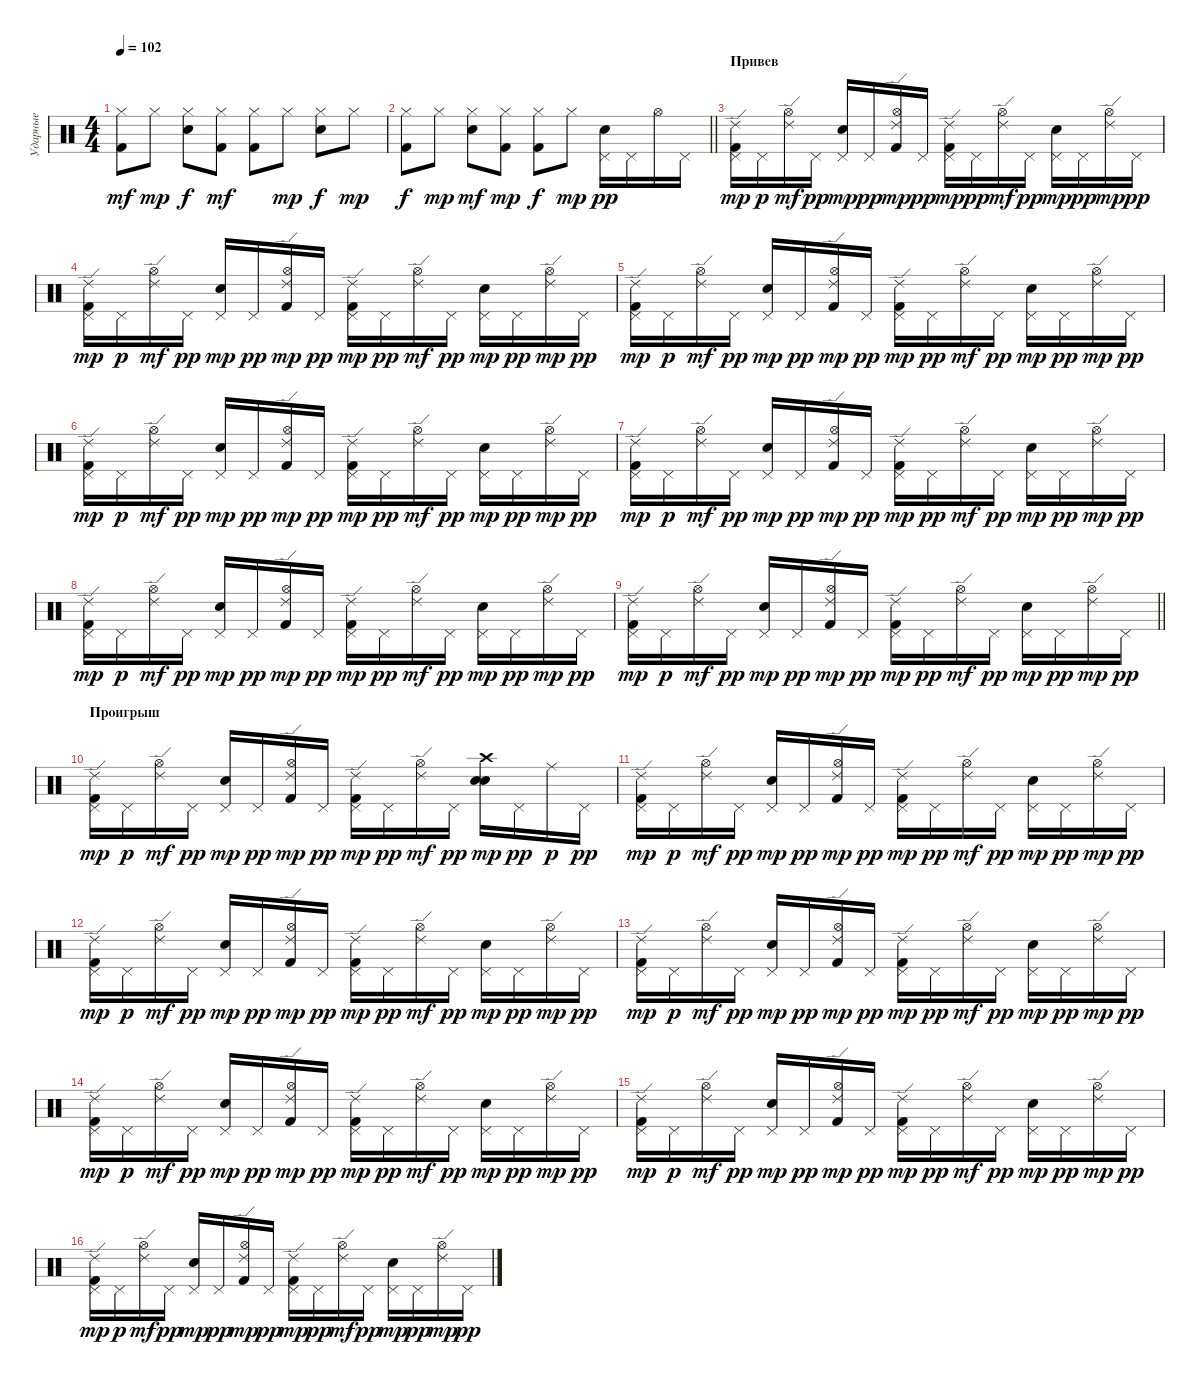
\track ("Ударные" "Ударные") {instrument percussion}
\staff {score}
\articulation defaults
\ts (4 4)
\tempo 102
\clef neutral
\ks c
("Hi-Hat (closed)" "Kick (hit) 2").8{dy mf} "Hi-Hat (closed)".8{dy mp} ("Hi-Hat (closed)" "Snare (hit) 2").8{dy f} ("Hi-Hat (closed)" "Kick (hit) 2").8{dy mf} ("Hi-Hat (closed)" "Kick (hit) 2").8 "Hi-Hat (closed)".8{dy mp} ("Hi-Hat (closed)" "Snare (hit) 2").8{dy f} "Hi-Hat (closed)".8{dy mp} |
\barLineRight lightlight
("Hi-Hat (closed)" "Kick (hit) 2").8{dy f} "Hi-Hat (closed)".8{dy mp} ("Hi-Hat (closed)" "Snare (hit) 2").8{dy mf} ("Hi-Hat (closed)" "Kick (hit) 2").8{dy mp} ("Hi-Hat (closed)" "Kick (hit) 2").8{dy f} "Hi-Hat (closed)".8{dy mp} ("Pedal Hi-Hat (hit)" "Snare (hit) 2").16{dy pp} "Pedal Hi-Hat (hit)".16 "Hi-Hat (open)".16 "Pedal Hi-Hat (hit)".16 |
\section ("" "Привев")
("Pedal Hi-Hat (hit)" "Ride (edge) 2" "Kick (hit) 2").16{dy mp} "Pedal Hi-Hat (hit)".16{dy p} ("Hi-Hat (open)" "Ride (edge) 2").16{dy mf} "Pedal Hi-Hat (hit)".16{dy pp} ("Pedal Hi-Hat (hit)" "Snare (hit) 2").16{dy mp} "Pedal Hi-Hat (hit)".16{dy pp} ("Hi-Hat (open)" "Ride (edge) 2" "Kick (hit) 2").16{dy mp} "Pedal Hi-Hat (hit)".16{dy pp} ("Pedal Hi-Hat (hit)" "Ride (edge) 2" "Kick (hit) 2").16{dy mp} "Pedal Hi-Hat (hit)".16{dy pp} ("Hi-Hat (open)" "Ride (edge) 2").16{dy mf} "Pedal Hi-Hat (hit)".16{dy pp} ("Pedal Hi-Hat (hit)" "Snare (hit) 2").16{dy mp} "Pedal Hi-Hat (hit)".16{dy pp} ("Hi-Hat (open)" "Ride (edge) 2").16{dy mp} "Pedal Hi-Hat (hit)".16{dy pp} |
("Pedal Hi-Hat (hit)" "Ride (edge) 2" "Kick (hit) 2").16{dy mp} "Pedal Hi-Hat (hit)".16{dy p} ("Hi-Hat (open)" "Ride (edge) 2").16{dy mf} "Pedal Hi-Hat (hit)".16{dy pp} ("Pedal Hi-Hat (hit)" "Snare (hit) 2").16{dy mp} "Pedal Hi-Hat (hit)".16{dy pp} ("Hi-Hat (open)" "Ride (edge) 2" "Kick (hit) 2").16{dy mp} "Pedal Hi-Hat (hit)".16{dy pp} ("Pedal Hi-Hat (hit)" "Ride (edge) 2" "Kick (hit) 2").16{dy mp} "Pedal Hi-Hat (hit)".16{dy pp} ("Hi-Hat (open)" "Ride (edge) 2").16{dy mf} "Pedal Hi-Hat (hit)".16{dy pp} ("Pedal Hi-Hat (hit)" "Snare (hit) 2").16{dy mp} "Pedal Hi-Hat (hit)".16{dy pp} ("Hi-Hat (open)" "Ride (edge) 2").16{dy mp} "Pedal Hi-Hat (hit)".16{dy pp} |
("Pedal Hi-Hat (hit)" "Ride (edge) 2" "Kick (hit) 2").16{dy mp} "Pedal Hi-Hat (hit)".16{dy p} ("Hi-Hat (open)" "Ride (edge) 2").16{dy mf} "Pedal Hi-Hat (hit)".16{dy pp} ("Pedal Hi-Hat (hit)" "Snare (hit) 2").16{dy mp} "Pedal Hi-Hat (hit)".16{dy pp} ("Hi-Hat (open)" "Ride (edge) 2" "Kick (hit) 2").16{dy mp} "Pedal Hi-Hat (hit)".16{dy pp} ("Pedal Hi-Hat (hit)" "Ride (edge) 2" "Kick (hit) 2").16{dy mp} "Pedal Hi-Hat (hit)".16{dy pp} ("Hi-Hat (open)" "Ride (edge) 2").16{dy mf} "Pedal Hi-Hat (hit)".16{dy pp} ("Pedal Hi-Hat (hit)" "Snare (hit) 2").16{dy mp} "Pedal Hi-Hat (hit)".16{dy pp} ("Hi-Hat (open)" "Ride (edge) 2").16{dy mp} "Pedal Hi-Hat (hit)".16{dy pp} |
("Pedal Hi-Hat (hit)" "Ride (edge) 2" "Kick (hit) 2").16{dy mp} "Pedal Hi-Hat (hit)".16{dy p} ("Hi-Hat (open)" "Ride (edge) 2").16{dy mf} "Pedal Hi-Hat (hit)".16{dy pp} ("Pedal Hi-Hat (hit)" "Snare (hit) 2").16{dy mp} "Pedal Hi-Hat (hit)".16{dy pp} ("Hi-Hat (open)" "Ride (edge) 2" "Kick (hit) 2").16{dy mp} "Pedal Hi-Hat (hit)".16{dy pp} ("Pedal Hi-Hat (hit)" "Ride (edge) 2" "Kick (hit) 2").16{dy mp} "Pedal Hi-Hat (hit)".16{dy pp} ("Hi-Hat (open)" "Ride (edge) 2").16{dy mf} "Pedal Hi-Hat (hit)".16{dy pp} ("Pedal Hi-Hat (hit)" "Snare (hit) 2").16{dy mp} "Pedal Hi-Hat (hit)".16{dy pp} ("Hi-Hat (open)" "Ride (edge) 2").16{dy mp} "Pedal Hi-Hat (hit)".16{dy pp} |
("Pedal Hi-Hat (hit)" "Ride (edge) 2" "Kick (hit) 2").16{dy mp} "Pedal Hi-Hat (hit)".16{dy p} ("Hi-Hat (open)" "Ride (edge) 2").16{dy mf} "Pedal Hi-Hat (hit)".16{dy pp} ("Pedal Hi-Hat (hit)" "Snare (hit) 2").16{dy mp} "Pedal Hi-Hat (hit)".16{dy pp} ("Hi-Hat (open)" "Ride (edge) 2" "Kick (hit) 2").16{dy mp} "Pedal Hi-Hat (hit)".16{dy pp} ("Pedal Hi-Hat (hit)" "Ride (edge) 2" "Kick (hit) 2").16{dy mp} "Pedal Hi-Hat (hit)".16{dy pp} ("Hi-Hat (open)" "Ride (edge) 2").16{dy mf} "Pedal Hi-Hat (hit)".16{dy pp} ("Pedal Hi-Hat (hit)" "Snare (hit) 2").16{dy mp} "Pedal Hi-Hat (hit)".16{dy pp} ("Hi-Hat (open)" "Ride (edge) 2").16{dy mp} "Pedal Hi-Hat (hit)".16{dy pp} |
("Pedal Hi-Hat (hit)" "Ride (edge) 2" "Kick (hit) 2").16{dy mp} "Pedal Hi-Hat (hit)".16{dy p} ("Hi-Hat (open)" "Ride (edge) 2").16{dy mf} "Pedal Hi-Hat (hit)".16{dy pp} ("Pedal Hi-Hat (hit)" "Snare (hit) 2").16{dy mp} "Pedal Hi-Hat (hit)".16{dy pp} ("Hi-Hat (open)" "Ride (edge) 2" "Kick (hit) 2").16{dy mp} "Pedal Hi-Hat (hit)".16{dy pp} ("Pedal Hi-Hat (hit)" "Ride (edge) 2" "Kick (hit) 2").16{dy mp} "Pedal Hi-Hat (hit)".16{dy pp} ("Hi-Hat (open)" "Ride (edge) 2").16{dy mf} "Pedal Hi-Hat (hit)".16{dy pp} ("Pedal Hi-Hat (hit)" "Snare (hit) 2").16{dy mp} "Pedal Hi-Hat (hit)".16{dy pp} ("Hi-Hat (open)" "Ride (edge) 2").16{dy mp} "Pedal Hi-Hat (hit)".16{dy pp} |
\barLineRight lightlight
("Pedal Hi-Hat (hit)" "Ride (edge) 2" "Kick (hit) 2").16{dy mp} "Pedal Hi-Hat (hit)".16{dy p} ("Hi-Hat (open)" "Ride (edge) 2").16{dy mf} "Pedal Hi-Hat (hit)".16{dy pp} ("Pedal Hi-Hat (hit)" "Snare (hit) 2").16{dy mp} "Pedal Hi-Hat (hit)".16{dy pp} ("Hi-Hat (open)" "Ride (edge) 2" "Kick (hit) 2").16{dy mp} "Pedal Hi-Hat (hit)".16{dy pp} ("Pedal Hi-Hat (hit)" "Ride (edge) 2" "Kick (hit) 2").16{dy mp} "Pedal Hi-Hat (hit)".16{dy pp} ("Hi-Hat (open)" "Ride (edge) 2").16{dy mf} "Pedal Hi-Hat (hit)".16{dy pp} ("Pedal Hi-Hat (hit)" "Snare (hit) 2").16{dy mp} "Pedal Hi-Hat (hit)".16{dy pp} ("Hi-Hat (open)" "Ride (edge) 2").16{dy mp} "Pedal Hi-Hat (hit)".16{dy pp} |
\section ("" "Проигрыш")
("Pedal Hi-Hat (hit)" "Ride (edge) 2" "Kick (hit) 2").16{dy mp} "Pedal Hi-Hat (hit)".16{dy p} ("Hi-Hat (open)" "Ride (edge) 2").16{dy mf} "Pedal Hi-Hat (hit)".16{dy pp} ("Pedal Hi-Hat (hit)" "Snare (hit) 2").16{dy mp} "Pedal Hi-Hat (hit)".16{dy pp} ("Hi-Hat (open)" "Ride (edge) 2" "Kick (hit) 2").16{dy mp} "Pedal Hi-Hat (hit)".16{dy pp} ("Pedal Hi-Hat (hit)" "Ride (edge) 2" "Kick (hit) 2").16{dy mp} "Pedal Hi-Hat (hit)".16{dy pp} ("Hi-Hat (open)" "Ride (edge) 2").16{dy mf} "Pedal Hi-Hat (hit)".16{dy pp} ("Crash high (hit)" "Snare (hit) 2" "Snare (hit) 2").16{dy mp} "Pedal Hi-Hat (hit)".16{dy pp} "Ride (middle)".16{dy p} "Pedal Hi-Hat (hit)".16{dy pp} |
("Pedal Hi-Hat (hit)" "Ride (edge) 2" "Kick (hit) 2").16{dy mp} "Pedal Hi-Hat (hit)".16{dy p} ("Hi-Hat (open)" "Ride (edge) 2").16{dy mf} "Pedal Hi-Hat (hit)".16{dy pp} ("Pedal Hi-Hat (hit)" "Snare (hit) 2").16{dy mp} "Pedal Hi-Hat (hit)".16{dy pp} ("Hi-Hat (open)" "Ride (edge) 2" "Kick (hit) 2").16{dy mp} "Pedal Hi-Hat (hit)".16{dy pp} ("Pedal Hi-Hat (hit)" "Ride (edge) 2" "Kick (hit) 2").16{dy mp} "Pedal Hi-Hat (hit)".16{dy pp} ("Hi-Hat (open)" "Ride (edge) 2").16{dy mf} "Pedal Hi-Hat (hit)".16{dy pp} ("Pedal Hi-Hat (hit)" "Snare (hit) 2").16{dy mp} "Pedal Hi-Hat (hit)".16{dy pp} ("Hi-Hat (open)" "Ride (edge) 2").16{dy mp} "Pedal Hi-Hat (hit)".16{dy pp} |
("Pedal Hi-Hat (hit)" "Ride (edge) 2" "Kick (hit) 2").16{dy mp} "Pedal Hi-Hat (hit)".16{dy p} ("Hi-Hat (open)" "Ride (edge) 2").16{dy mf} "Pedal Hi-Hat (hit)".16{dy pp} ("Pedal Hi-Hat (hit)" "Snare (hit) 2").16{dy mp} "Pedal Hi-Hat (hit)".16{dy pp} ("Hi-Hat (open)" "Ride (edge) 2" "Kick (hit) 2").16{dy mp} "Pedal Hi-Hat (hit)".16{dy pp} ("Pedal Hi-Hat (hit)" "Ride (edge) 2" "Kick (hit) 2").16{dy mp} "Pedal Hi-Hat (hit)".16{dy pp} ("Hi-Hat (open)" "Ride (edge) 2").16{dy mf} "Pedal Hi-Hat (hit)".16{dy pp} ("Pedal Hi-Hat (hit)" "Snare (hit) 2").16{dy mp} "Pedal Hi-Hat (hit)".16{dy pp} ("Hi-Hat (open)" "Ride (edge) 2").16{dy mp} "Pedal Hi-Hat (hit)".16{dy pp} |
("Pedal Hi-Hat (hit)" "Ride (edge) 2" "Kick (hit) 2").16{dy mp} "Pedal Hi-Hat (hit)".16{dy p} ("Hi-Hat (open)" "Ride (edge) 2").16{dy mf} "Pedal Hi-Hat (hit)".16{dy pp} ("Pedal Hi-Hat (hit)" "Snare (hit) 2").16{dy mp} "Pedal Hi-Hat (hit)".16{dy pp} ("Hi-Hat (open)" "Ride (edge) 2" "Kick (hit) 2").16{dy mp} "Pedal Hi-Hat (hit)".16{dy pp} ("Pedal Hi-Hat (hit)" "Ride (edge) 2" "Kick (hit) 2").16{dy mp} "Pedal Hi-Hat (hit)".16{dy pp} ("Hi-Hat (open)" "Ride (edge) 2").16{dy mf} "Pedal Hi-Hat (hit)".16{dy pp} ("Pedal Hi-Hat (hit)" "Snare (hit) 2").16{dy mp} "Pedal Hi-Hat (hit)".16{dy pp} ("Hi-Hat (open)" "Ride (edge) 2").16{dy mp} "Pedal Hi-Hat (hit)".16{dy pp} |
("Pedal Hi-Hat (hit)" "Ride (edge) 2" "Kick (hit) 2").16{dy mp} "Pedal Hi-Hat (hit)".16{dy p} ("Hi-Hat (open)" "Ride (edge) 2").16{dy mf} "Pedal Hi-Hat (hit)".16{dy pp} ("Pedal Hi-Hat (hit)" "Snare (hit) 2").16{dy mp} "Pedal Hi-Hat (hit)".16{dy pp} ("Hi-Hat (open)" "Ride (edge) 2" "Kick (hit) 2").16{dy mp} "Pedal Hi-Hat (hit)".16{dy pp} ("Pedal Hi-Hat (hit)" "Ride (edge) 2" "Kick (hit) 2").16{dy mp} "Pedal Hi-Hat (hit)".16{dy pp} ("Hi-Hat (open)" "Ride (edge) 2").16{dy mf} "Pedal Hi-Hat (hit)".16{dy pp} ("Pedal Hi-Hat (hit)" "Snare (hit) 2").16{dy mp} "Pedal Hi-Hat (hit)".16{dy pp} ("Hi-Hat (open)" "Ride (edge) 2").16{dy mp} "Pedal Hi-Hat (hit)".16{dy pp} |
("Pedal Hi-Hat (hit)" "Ride (edge) 2" "Kick (hit) 2").16{dy mp} "Pedal Hi-Hat (hit)".16{dy p} ("Hi-Hat (open)" "Ride (edge) 2").16{dy mf} "Pedal Hi-Hat (hit)".16{dy pp} ("Pedal Hi-Hat (hit)" "Snare (hit) 2").16{dy mp} "Pedal Hi-Hat (hit)".16{dy pp} ("Hi-Hat (open)" "Ride (edge) 2" "Kick (hit) 2").16{dy mp} "Pedal Hi-Hat (hit)".16{dy pp} ("Pedal Hi-Hat (hit)" "Ride (edge) 2" "Kick (hit) 2").16{dy mp} "Pedal Hi-Hat (hit)".16{dy pp} ("Hi-Hat (open)" "Ride (edge) 2").16{dy mf} "Pedal Hi-Hat (hit)".16{dy pp} ("Pedal Hi-Hat (hit)" "Snare (hit) 2").16{dy mp} "Pedal Hi-Hat (hit)".16{dy pp} ("Hi-Hat (open)" "Ride (edge) 2").16{dy mp} "Pedal Hi-Hat (hit)".16{dy pp} |
("Pedal Hi-Hat (hit)" "Ride (edge) 2" "Kick (hit) 2").16{dy mp} "Pedal Hi-Hat (hit)".16{dy p} ("Hi-Hat (open)" "Ride (edge) 2").16{dy mf} "Pedal Hi-Hat (hit)".16{dy pp} ("Pedal Hi-Hat (hit)" "Snare (hit) 2").16{dy mp} "Pedal Hi-Hat (hit)".16{dy pp} ("Hi-Hat (open)" "Ride (edge) 2" "Kick (hit) 2").16{dy mp} "Pedal Hi-Hat (hit)".16{dy pp} ("Pedal Hi-Hat (hit)" "Ride (edge) 2" "Kick (hit) 2").16{dy mp} "Pedal Hi-Hat (hit)".16{dy pp} ("Hi-Hat (open)" "Ride (edge) 2").16{dy mf} "Pedal Hi-Hat (hit)".16{dy pp} ("Pedal Hi-Hat (hit)" "Snare (hit) 2").16{dy mp} "Pedal Hi-Hat (hit)".16{dy pp} ("Hi-Hat (open)" "Ride (edge) 2").16{dy mp} "Pedal Hi-Hat (hit)".16{dy pp}
